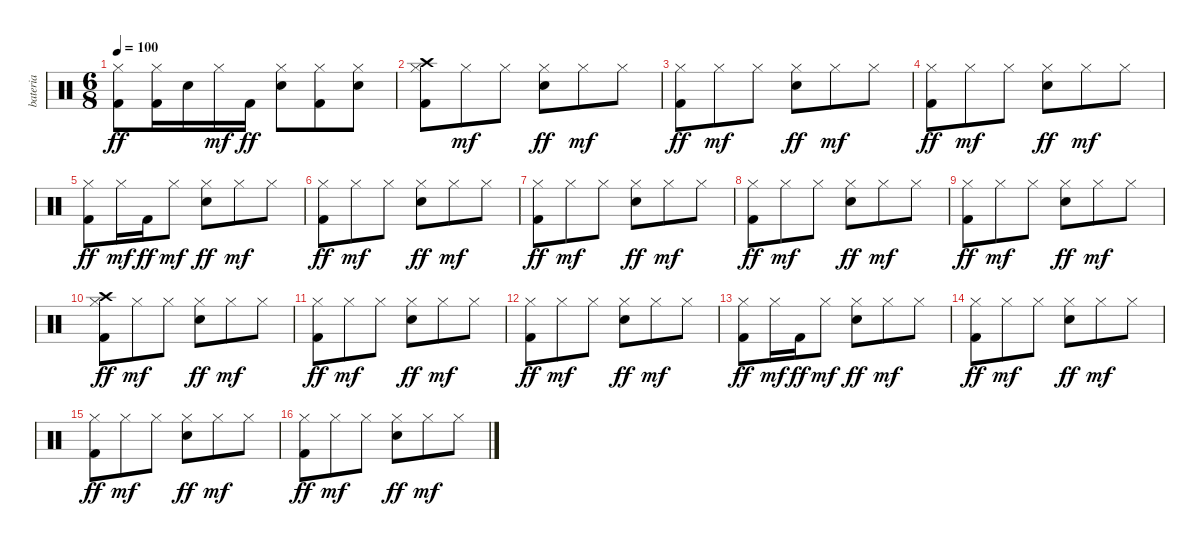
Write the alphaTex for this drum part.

\track ("bateria" "bateria") {instrument percussion}
\staff {score}
\articulation defaults
\ts (6 8)
\tempo 100
\clef neutral
\ks c
("Hi-Hat (closed)" "Kick (hit) 2").8{dy ff} ("Hi-Hat (closed)" "Kick (hit) 2").16 "Snare (hit) 2".16 "Hi-Hat (closed)".16{dy mf} "Kick (hit) 2".16{dy ff} ("Hi-Hat (closed)" "Snare (hit) 2").8 ("Hi-Hat (closed)" "Kick (hit) 2").8 ("Hi-Hat (closed)" "Snare (hit) 2").8 |
("Crash high (hit)" "Hi-Hat (closed)" "Kick (hit) 2").8 "Hi-Hat (closed)".8{dy mf} "Hi-Hat (closed)".8 ("Hi-Hat (closed)" "Snare (hit) 2").8{dy ff} "Hi-Hat (closed)".8{dy mf} "Hi-Hat (closed)".8 |
("Hi-Hat (closed)" "Kick (hit) 2").8{dy ff} "Hi-Hat (closed)".8{dy mf} "Hi-Hat (closed)".8 ("Hi-Hat (closed)" "Snare (hit) 2").8{dy ff} "Hi-Hat (closed)".8{dy mf} "Hi-Hat (closed)".8 |
("Hi-Hat (closed)" "Kick (hit) 2").8{dy ff} "Hi-Hat (closed)".8{dy mf} "Hi-Hat (closed)".8 ("Hi-Hat (closed)" "Snare (hit) 2").8{dy ff} "Hi-Hat (closed)".8{dy mf} "Hi-Hat (closed)".8 |
("Hi-Hat (closed)" "Kick (hit) 2").8{dy ff} "Hi-Hat (closed)".16{dy mf} "Kick (hit) 2".16{dy ff} "Hi-Hat (closed)".8{dy mf} ("Hi-Hat (closed)" "Snare (hit) 2").8{dy ff} "Hi-Hat (closed)".8{dy mf} "Hi-Hat (closed)".8 |
("Hi-Hat (closed)" "Kick (hit) 2").8{dy ff} "Hi-Hat (closed)".8{dy mf} "Hi-Hat (closed)".8 ("Hi-Hat (closed)" "Snare (hit) 2").8{dy ff} "Hi-Hat (closed)".8{dy mf} "Hi-Hat (closed)".8 |
("Hi-Hat (closed)" "Kick (hit) 2").8{dy ff} "Hi-Hat (closed)".8{dy mf} "Hi-Hat (closed)".8 ("Hi-Hat (closed)" "Snare (hit) 2").8{dy ff} "Hi-Hat (closed)".8{dy mf} "Hi-Hat (closed)".8 |
("Hi-Hat (closed)" "Kick (hit) 2").8{dy ff} "Hi-Hat (closed)".8{dy mf} "Hi-Hat (closed)".8 ("Hi-Hat (closed)" "Snare (hit) 2").8{dy ff} "Hi-Hat (closed)".8{dy mf} "Hi-Hat (closed)".8 |
("Hi-Hat (closed)" "Kick (hit) 2").8{dy ff} "Hi-Hat (closed)".8{dy mf} "Hi-Hat (closed)".8 ("Hi-Hat (closed)" "Snare (hit) 2").8{dy ff} "Hi-Hat (closed)".8{dy mf} "Hi-Hat (closed)".8 |
("Crash high (hit)" "Hi-Hat (closed)" "Kick (hit) 2").8{dy ff} "Hi-Hat (closed)".8{dy mf} "Hi-Hat (closed)".8 ("Hi-Hat (closed)" "Snare (hit) 2").8{dy ff} "Hi-Hat (closed)".8{dy mf} "Hi-Hat (closed)".8 |
("Hi-Hat (closed)" "Kick (hit) 2").8{dy ff} "Hi-Hat (closed)".8{dy mf} "Hi-Hat (closed)".8 ("Hi-Hat (closed)" "Snare (hit) 2").8{dy ff} "Hi-Hat (closed)".8{dy mf} "Hi-Hat (closed)".8 |
("Hi-Hat (closed)" "Kick (hit) 2").8{dy ff} "Hi-Hat (closed)".8{dy mf} "Hi-Hat (closed)".8 ("Hi-Hat (closed)" "Snare (hit) 2").8{dy ff} "Hi-Hat (closed)".8{dy mf} "Hi-Hat (closed)".8 |
("Hi-Hat (closed)" "Kick (hit) 2").8{dy ff} "Hi-Hat (closed)".16{dy mf} "Kick (hit) 2".16{dy ff} "Hi-Hat (closed)".8{dy mf} ("Hi-Hat (closed)" "Snare (hit) 2").8{dy ff} "Hi-Hat (closed)".8{dy mf} "Hi-Hat (closed)".8 |
("Hi-Hat (closed)" "Kick (hit) 2").8{dy ff} "Hi-Hat (closed)".8{dy mf} "Hi-Hat (closed)".8 ("Hi-Hat (closed)" "Snare (hit) 2").8{dy ff} "Hi-Hat (closed)".8{dy mf} "Hi-Hat (closed)".8 |
("Hi-Hat (closed)" "Kick (hit) 2").8{dy ff} "Hi-Hat (closed)".8{dy mf} "Hi-Hat (closed)".8 ("Hi-Hat (closed)" "Snare (hit) 2").8{dy ff} "Hi-Hat (closed)".8{dy mf} "Hi-Hat (closed)".8 |
("Hi-Hat (closed)" "Kick (hit) 2").8{dy ff} "Hi-Hat (closed)".8{dy mf} "Hi-Hat (closed)".8 ("Hi-Hat (closed)" "Snare (hit) 2").8{dy ff} "Hi-Hat (closed)".8{dy mf} "Hi-Hat (closed)".8
